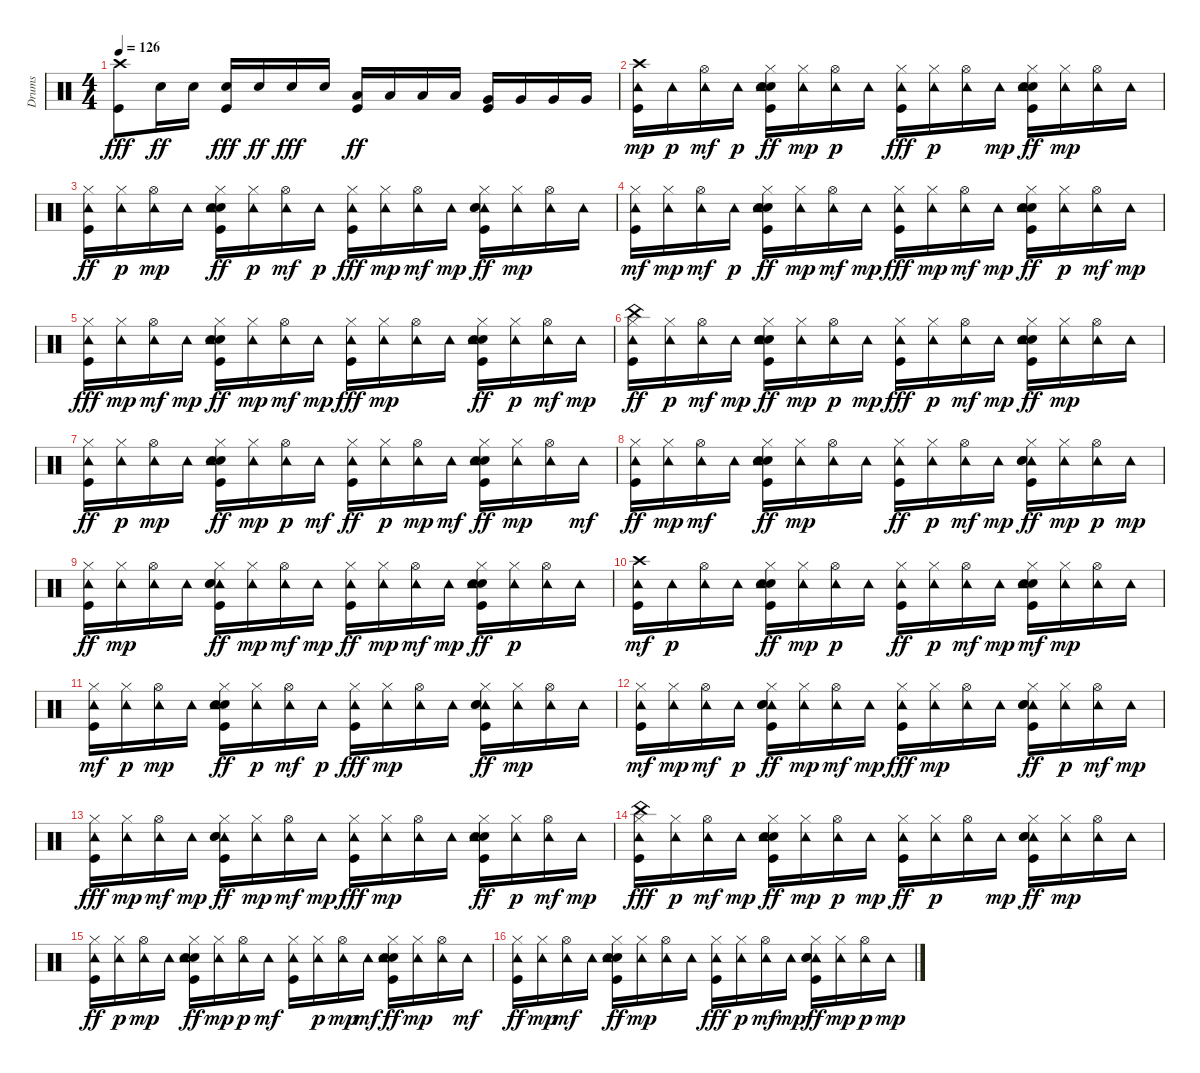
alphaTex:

\track ("Drums" "Drums") {instrument percussion}
\staff {score}
\articulation defaults
\ts (4 4)
\tempo 126
\clef neutral
\ks c
("Crash high (hit)" "Kick (hit)").8{dy fff} "Snare (hit) 2".16{dy ff} "Snare (hit) 2".16 ("Kick (hit)" "Snare (hit) 2").16{dy fff} "Snare (hit) 2".16{dy ff} "Snare (hit) 2".16{dy fff} "Snare (hit) 2".16 ("Kick (hit)" "Low Tom (hit)").16{dy ff} "Low Tom (hit)".16 "Low Tom (hit)".16 "Low Tom (hit)".16 ("Kick (hit)" "Very Low Tom (hit)").16 "Very Low Tom (hit)".16 "Very Low Tom (hit)".16 "Very Low Tom (hit)".16 |
("Tambourine (hit)" "Kick (hit)" "Crash high (hit)").16{dy mp} "Tambourine (hit)".16{dy p} ("Tambourine (hit)" "Hi-Hat (open)").16{dy mf} "Tambourine (hit)".16{dy p} ("Hand Clap (hit)" "Tambourine (hit)" "Kick (hit)" "Snare (hit) 2" "Hi-Hat (closed)").16{dy ff} ("Tambourine (hit)" "Hi-Hat (closed)").16{dy mp} ("Hi-Hat (open)" "Tambourine (hit)").16{dy p} "Tambourine (hit)".16 ("Tambourine (hit)" "Hi-Hat (closed)" "Kick (hit)").16{dy fff} ("Hi-Hat (closed)" "Tambourine (hit)").16{dy p} ("Hi-Hat (open)" "Tambourine (hit)").16 "Tambourine (hit)".16{dy mp} ("Hand Clap (hit)" "Tambourine (hit)" "Kick (hit)" "Snare (hit) 2" "Hi-Hat (closed)").16{dy ff} ("Hi-Hat (closed)" "Tambourine (hit)").16{dy mp} ("Hi-Hat (open)" "Tambourine (hit)").16 "Tambourine (hit)".16 |
("Kick (hit)" "Tambourine (hit)" "Hi-Hat (closed)").16{dy ff} ("Hi-Hat (closed)" "Tambourine (hit)").16{dy p} ("Hi-Hat (open)" "Tambourine (hit)").16{dy mp} "Tambourine (hit)".16 ("Hand Clap (hit)" "Tambourine (hit)" "Kick (hit)" "Snare (hit) 2" "Hi-Hat (closed)").16{dy ff} ("Tambourine (hit)" "Hi-Hat (closed)").16{dy p} ("Tambourine (hit)" "Hi-Hat (open)").16{dy mf} "Tambourine (hit)".16{dy p} ("Tambourine (hit)" "Hi-Hat (closed)" "Kick (hit)").16{dy fff} ("Tambourine (hit)" "Hi-Hat (closed)").16{dy mp} ("Tambourine (hit)" "Hi-Hat (open)").16{dy mf} "Tambourine (hit)".16{dy mp} ("Tambourine (hit)" "Hi-Hat (closed)" "Kick (hit)" "Snare (hit) 2" "Hand Clap (hit)").16{dy ff} ("Tambourine (hit)" "Hi-Hat (closed)").16{dy mp} ("Hi-Hat (open)" "Tambourine (hit)").16 "Tambourine (hit)".16 |
("Hi-Hat (closed)" "Kick (hit)" "Tambourine (hit)").16{dy mf} ("Tambourine (hit)" "Hi-Hat (closed)").16{dy mp} ("Tambourine (hit)" "Hi-Hat (open)").16{dy mf} "Tambourine (hit)".16{dy p} ("Hand Clap (hit)" "Tambourine (hit)" "Hi-Hat (closed)" "Kick (hit)" "Snare (hit) 2").16{dy ff} ("Tambourine (hit)" "Hi-Hat (closed)").16{dy mp} ("Tambourine (hit)" "Hi-Hat (open)").16{dy mf} "Tambourine (hit)".16{dy mp} ("Tambourine (hit)" "Hi-Hat (closed)" "Kick (hit)").16{dy fff} ("Tambourine (hit)" "Hi-Hat (closed)").16{dy mp} ("Tambourine (hit)" "Hi-Hat (open)").16{dy mf} "Tambourine (hit)".16{dy mp} ("Hand Clap (hit)" "Tambourine (hit)" "Hi-Hat (closed)" "Kick (hit)" "Snare (hit) 2").16{dy ff} ("Tambourine (hit)" "Hi-Hat (closed)").16{dy p} ("Tambourine (hit)" "Hi-Hat (open)").16{dy mf} "Tambourine (hit)".16{dy mp} |
("Tambourine (hit)" "Hi-Hat (closed)" "Kick (hit)").16{dy fff} ("Tambourine (hit)" "Hi-Hat (closed)").16{dy mp} ("Tambourine (hit)" "Hi-Hat (open)").16{dy mf} "Tambourine (hit)".16{dy mp} ("Hand Clap (hit)" "Tambourine (hit)" "Hi-Hat (closed)" "Kick (hit)" "Snare (hit) 2").16{dy ff} ("Tambourine (hit)" "Hi-Hat (closed)").16{dy mp} ("Tambourine (hit)" "Hi-Hat (open)").16{dy mf} "Tambourine (hit)".16{dy mp} ("Tambourine (hit)" "Hi-Hat (closed)" "Kick (hit)").16{dy fff} ("Tambourine (hit)" "Hi-Hat (closed)").16{dy mp} ("Hi-Hat (open)" "Tambourine (hit)").16 "Tambourine (hit)".16 ("Hand Clap (hit)" "Kick (hit)" "Snare (hit) 2" "Tambourine (hit)" "Hi-Hat (closed)").16{dy ff} ("Tambourine (hit)" "Hi-Hat (closed)").16{dy p} ("Tambourine (hit)" "Hi-Hat (open)").16{dy mf} "Tambourine (hit)".16{dy mp} |
("Kick (hit)" "China (hit)" "Tambourine (hit)" "Hi-Hat (closed)").16{dy ff} ("Tambourine (hit)" "Hi-Hat (closed)").16{dy p} ("Tambourine (hit)" "Hi-Hat (open)").16{dy mf} "Tambourine (hit)".16{dy mp} ("Hand Clap (hit)" "Kick (hit)" "Snare (hit) 2" "Tambourine (hit)" "Hi-Hat (closed)").16{dy ff} ("Tambourine (hit)" "Hi-Hat (closed)").16{dy mp} ("Hi-Hat (open)" "Tambourine (hit)").16{dy p} "Tambourine (hit)".16{dy mp} ("Tambourine (hit)" "Hi-Hat (closed)" "Kick (hit)").16{dy fff} ("Hi-Hat (closed)" "Tambourine (hit)").16{dy p} ("Tambourine (hit)" "Hi-Hat (open)").16{dy mf} "Tambourine (hit)".16{dy mp} ("Hand Clap (hit)" "Tambourine (hit)" "Kick (hit)" "Snare (hit) 2" "Hi-Hat (closed)").16{dy ff} ("Tambourine (hit)" "Hi-Hat (closed)").16{dy mp} ("Hi-Hat (open)" "Tambourine (hit)").16 "Tambourine (hit)".16 |
("Kick (hit)" "Tambourine (hit)" "Hi-Hat (closed)").16{dy ff} ("Hi-Hat (closed)" "Tambourine (hit)").16{dy p} ("Hi-Hat (open)" "Tambourine (hit)").16{dy mp} "Tambourine (hit)".16 ("Kick (hit)" "Snare (hit) 2" "Hi-Hat (closed)" "Tambourine (hit)" "Hand Clap (hit)").16{dy ff} ("Tambourine (hit)" "Hi-Hat (closed)").16{dy mp} ("Hi-Hat (open)" "Tambourine (hit)").16{dy p} "Tambourine (hit)".16{dy mf} ("Kick (hit)" "Tambourine (hit)" "Hi-Hat (closed)").16{dy ff} ("Tambourine (hit)" "Hi-Hat (closed)").16{dy p} ("Hi-Hat (open)" "Tambourine (hit)").16{dy mp} "Tambourine (hit)".16{dy mf} ("Hand Clap (hit)" "Tambourine (hit)" "Hi-Hat (closed)" "Kick (hit)" "Snare (hit) 2").16{dy ff} ("Tambourine (hit)" "Hi-Hat (closed)").16{dy mp} ("Hi-Hat (open)" "Tambourine (hit)").16 "Tambourine (hit)".16{dy mf} |
("Kick (hit)" "Tambourine (hit)" "Hi-Hat (closed)").16{dy ff} ("Tambourine (hit)" "Hi-Hat (closed)").16{dy mp} ("Tambourine (hit)" "Hi-Hat (open)").16{dy mf} "Tambourine (hit)".16 ("Hand Clap (hit)" "Tambourine (hit)" "Kick (hit)" "Snare (hit) 2" "Hi-Hat (closed)").16{dy ff} ("Tambourine (hit)" "Hi-Hat (closed)").16{dy mp} ("Hi-Hat (open)" "Tambourine (hit)").16 "Tambourine (hit)".16 ("Kick (hit)" "Tambourine (hit)" "Hi-Hat (closed)").16{dy ff} ("Tambourine (hit)" "Hi-Hat (closed)").16{dy p} ("Tambourine (hit)" "Hi-Hat (open)").16{dy mf} "Tambourine (hit)".16{dy mp} ("Tambourine (hit)" "Hi-Hat (closed)" "Kick (hit)" "Snare (hit) 2" "Hand Clap (hit)").16{dy ff} ("Tambourine (hit)" "Hi-Hat (closed)").16{dy mp} ("Hi-Hat (open)" "Tambourine (hit)").16{dy p} "Tambourine (hit)".16{dy mp} |
("Kick (hit)" "Tambourine (hit)" "Hi-Hat (closed)").16{dy ff} ("Tambourine (hit)" "Hi-Hat (closed)").16{dy mp} ("Hi-Hat (open)" "Tambourine (hit)").16 "Tambourine (hit)".16 ("Hi-Hat (closed)" "Tambourine (hit)" "Kick (hit)" "Snare (hit) 2" "Hand Clap (hit)").16{dy ff} ("Hi-Hat (closed)" "Tambourine (hit)").16{dy mp} ("Tambourine (hit)" "Hi-Hat (open)").16{dy mf} "Tambourine (hit)".16{dy mp} ("Kick (hit)" "Tambourine (hit)" "Hi-Hat (closed)").16{dy ff} ("Tambourine (hit)" "Hi-Hat (closed)").16{dy mp} ("Tambourine (hit)" "Hi-Hat (open)").16{dy mf} "Tambourine (hit)".16{dy mp} ("Snare (hit) 2" "Kick (hit)" "Hand Clap (hit)" "Tambourine (hit)" "Hi-Hat (closed)").16{dy ff} ("Hi-Hat (closed)" "Tambourine (hit)").16{dy p} ("Hi-Hat (open)" "Tambourine (hit)").16 "Tambourine (hit)".16 |
("Kick (hit)" "Crash high (hit)" "Tambourine (hit)").16{dy mf} "Tambourine (hit)".16{dy p} ("Hi-Hat (open)" "Tambourine (hit)").16 "Tambourine (hit)".16 ("Kick (hit)" "Snare (hit) 2" "Hand Clap (hit)" "Tambourine (hit)" "Hi-Hat (closed)").16{dy ff} ("Tambourine (hit)" "Hi-Hat (closed)").16{dy mp} ("Hi-Hat (open)" "Tambourine (hit)").16{dy p} "Tambourine (hit)".16 ("Kick (hit)" "Tambourine (hit)" "Hi-Hat (closed)").16{dy ff} ("Tambourine (hit)" "Hi-Hat (closed)").16{dy p} ("Tambourine (hit)" "Hi-Hat (open)").16{dy mf} "Tambourine (hit)".16{dy mp} ("Hand Clap (hit)" "Kick (hit)" "Snare (hit) 2" "Tambourine (hit)" "Hi-Hat (closed)").16{dy mf} ("Tambourine (hit)" "Hi-Hat (closed)").16{dy mp} ("Hi-Hat (open)" "Tambourine (hit)").16 "Tambourine (hit)".16 |
("Hi-Hat (closed)" "Kick (hit)" "Tambourine (hit)").16{dy mf} ("Hi-Hat (closed)" "Tambourine (hit)").16{dy p} ("Hi-Hat (open)" "Tambourine (hit)").16{dy mp} "Tambourine (hit)".16 ("Kick (hit)" "Snare (hit) 2" "Tambourine (hit)" "Hand Clap (hit)" "Hi-Hat (closed)").16{dy ff} ("Tambourine (hit)" "Hi-Hat (closed)").16{dy p} ("Tambourine (hit)" "Hi-Hat (open)").16{dy mf} "Tambourine (hit)".16{dy p} ("Tambourine (hit)" "Hi-Hat (closed)" "Kick (hit)").16{dy fff} ("Tambourine (hit)" "Hi-Hat (closed)").16{dy mp} ("Hi-Hat (open)" "Tambourine (hit)").16 "Tambourine (hit)".16 ("Tambourine (hit)" "Hand Clap (hit)" "Hi-Hat (closed)" "Kick (hit)" "Snare (hit) 2").16{dy ff} ("Tambourine (hit)" "Hi-Hat (closed)").16{dy mp} ("Hi-Hat (open)" "Tambourine (hit)").16 "Tambourine (hit)".16 |
("Hi-Hat (closed)" "Kick (hit)" "Tambourine (hit)").16{dy mf} ("Tambourine (hit)" "Hi-Hat (closed)").16{dy mp} ("Tambourine (hit)" "Hi-Hat (open)").16{dy mf} "Tambourine (hit)".16{dy p} ("Tambourine (hit)" "Hand Clap (hit)" "Kick (hit)" "Snare (hit) 2" "Hi-Hat (closed)").16{dy ff} ("Tambourine (hit)" "Hi-Hat (closed)").16{dy mp} ("Tambourine (hit)" "Hi-Hat (open)").16{dy mf} "Tambourine (hit)".16{dy mp} ("Tambourine (hit)" "Hi-Hat (closed)" "Kick (hit)").16{dy fff} ("Hi-Hat (closed)" "Tambourine (hit)").16{dy mp} ("Hi-Hat (open)" "Tambourine (hit)").16 "Tambourine (hit)".16 ("Hi-Hat (closed)" "Tambourine (hit)" "Kick (hit)" "Snare (hit) 2" "Hand Clap (hit)").16{dy ff} ("Tambourine (hit)" "Hi-Hat (closed)").16{dy p} ("Tambourine (hit)" "Hi-Hat (open)").16{dy mf} "Tambourine (hit)".16{dy mp} |
("Tambourine (hit)" "Hi-Hat (closed)" "Kick (hit)").16{dy fff} ("Tambourine (hit)" "Hi-Hat (closed)").16{dy mp} ("Tambourine (hit)" "Hi-Hat (open)").16{dy mf} "Tambourine (hit)".16{dy mp} ("Tambourine (hit)" "Hi-Hat (closed)" "Hand Clap (hit)" "Kick (hit)" "Snare (hit) 2").16{dy ff} ("Tambourine (hit)" "Hi-Hat (closed)").16{dy mp} ("Tambourine (hit)" "Hi-Hat (open)").16{dy mf} "Tambourine (hit)".16{dy mp} ("Tambourine (hit)" "Hi-Hat (closed)" "Kick (hit)").16{dy fff} ("Hi-Hat (closed)" "Tambourine (hit)").16{dy mp} ("Hi-Hat (open)" "Tambourine (hit)").16 "Tambourine (hit)".16 ("Hand Clap (hit)" "Tambourine (hit)" "Hi-Hat (closed)" "Kick (hit)" "Snare (hit) 2").16{dy ff} ("Tambourine (hit)" "Hi-Hat (closed)").16{dy p} ("Tambourine (hit)" "Hi-Hat (open)").16{dy mf} "Tambourine (hit)".16{dy mp} |
("China (hit)" "Tambourine (hit)" "Hi-Hat (closed)" "Kick (hit)").16{dy fff} ("Tambourine (hit)" "Hi-Hat (closed)").16{dy p} ("Tambourine (hit)" "Hi-Hat (open)").16{dy mf} "Tambourine (hit)".16{dy mp} ("Hand Clap (hit)" "Kick (hit)" "Snare (hit) 2" "Tambourine (hit)" "Hi-Hat (closed)").16{dy ff} ("Tambourine (hit)" "Hi-Hat (closed)").16{dy mp} ("Hi-Hat (open)" "Tambourine (hit)").16{dy p} "Tambourine (hit)".16{dy mp} ("Tambourine (hit)" "Kick (hit)" "Hi-Hat (closed)").16{dy ff} ("Tambourine (hit)" "Hi-Hat (closed)").16{dy p} ("Hi-Hat (open)" "Tambourine (hit)").16 "Tambourine (hit)".16{dy mp} ("Tambourine (hit)" "Hi-Hat (closed)" "Kick (hit)" "Snare (hit) 2" "Hand Clap (hit)").16{dy ff} ("Tambourine (hit)" "Hi-Hat (closed)").16{dy mp} ("Hi-Hat (open)" "Tambourine (hit)").16 "Tambourine (hit)".16 |
("Kick (hit)" "Tambourine (hit)" "Hi-Hat (closed)").16{dy ff} ("Hi-Hat (closed)" "Tambourine (hit)").16{dy p} ("Hi-Hat (open)" "Tambourine (hit)").16{dy mp} "Tambourine (hit)".16 ("Hand Clap (hit)" "Kick (hit)" "Snare (hit) 2" "Tambourine (hit)" "Hi-Hat (closed)").16{dy ff} ("Hi-Hat (closed)" "Tambourine (hit)").16{dy mp} ("Hi-Hat (open)" "Tambourine (hit)").16{dy p} "Tambourine (hit)".16{dy mf} ("Kick (hit)" "Hi-Hat (closed)" "Tambourine (hit)").16 ("Tambourine (hit)" "Hi-Hat (closed)").16{dy p} ("Hi-Hat (open)" "Tambourine (hit)").16{dy mp} "Tambourine (hit)".16{dy mf} ("Kick (hit)" "Snare (hit) 2" "Tambourine (hit)" "Hand Clap (hit)" "Hi-Hat (closed)").16{dy ff} ("Tambourine (hit)" "Hi-Hat (closed)").16{dy mp} ("Hi-Hat (open)" "Tambourine (hit)").16 "Tambourine (hit)".16{dy mf} |
("Kick (hit)" "Tambourine (hit)" "Hi-Hat (closed)").16{dy ff} ("Tambourine (hit)" "Hi-Hat (closed)").16{dy mp} ("Tambourine (hit)" "Hi-Hat (open)").16{dy mf} "Tambourine (hit)".16 ("Hand Clap (hit)" "Tambourine (hit)" "Kick (hit)" "Snare (hit) 2" "Hi-Hat (closed)").16{dy ff} ("Tambourine (hit)" "Hi-Hat (closed)").16{dy mp} ("Hi-Hat (open)" "Tambourine (hit)").16 "Tambourine (hit)".16 ("Tambourine (hit)" "Hi-Hat (closed)" "Kick (hit)").16{dy fff} ("Tambourine (hit)" "Hi-Hat (closed)").16{dy p} ("Tambourine (hit)" "Hi-Hat (open)").16{dy mf} "Tambourine (hit)".16{dy mp} ("Tambourine (hit)" "Hi-Hat (closed)" "Hand Clap (hit)" "Kick (hit)" "Snare (hit) 2").16{dy ff} ("Tambourine (hit)" "Hi-Hat (closed)").16{dy mp} ("Hi-Hat (open)" "Tambourine (hit)").16{dy p} "Tambourine (hit)".16{dy mp}
